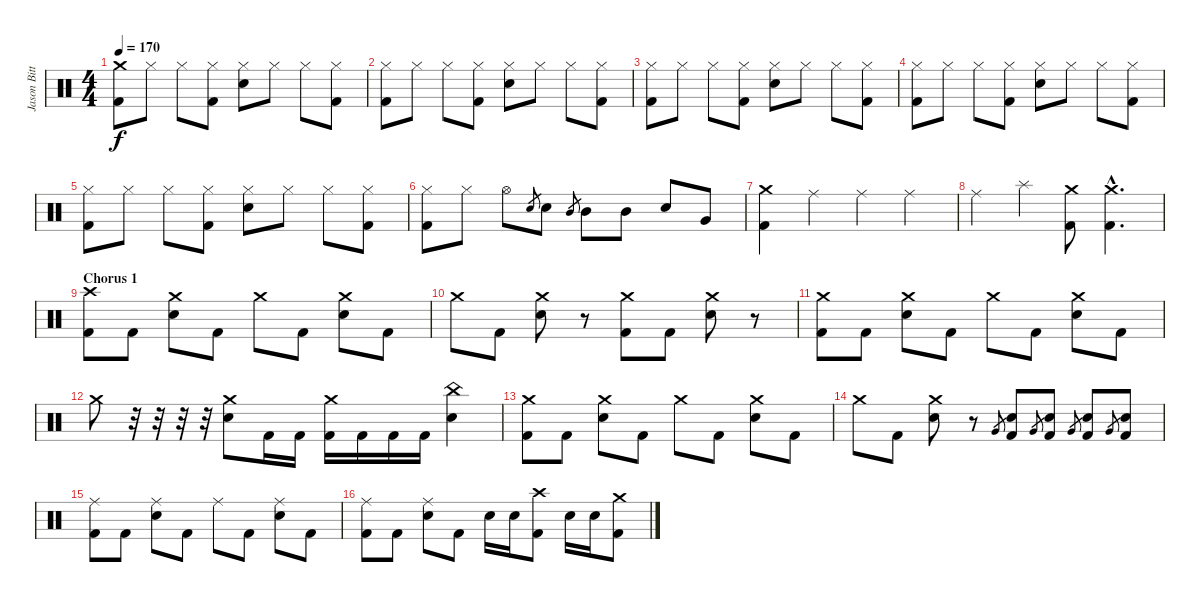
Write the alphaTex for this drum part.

\track ("Jason Bittner" "Jason Bitt") {instrument percussion}
\staff {score}
\articulation defaults
\ts (4 4)
\tempo 170
\clef neutral
\ks c
("Crash medium (hit)" "Kick (hit) 2").8{dy f} "Hi-Hat (closed)".8 "Hi-Hat (closed)".8 ("Hi-Hat (closed)" "Kick (hit) 2").8 ("Hi-Hat (closed)" "Electric Snare (hit)").8 "Hi-Hat (closed)".8 "Hi-Hat (closed)".8 ("Hi-Hat (closed)" "Kick (hit) 2").8 |
("Hi-Hat (closed)" "Kick (hit) 2").8 "Hi-Hat (closed)".8 "Hi-Hat (closed)".8 ("Hi-Hat (closed)" "Kick (hit) 2").8 ("Hi-Hat (closed)" "Electric Snare (hit)").8 "Hi-Hat (closed)".8 "Hi-Hat (closed)".8 ("Hi-Hat (closed)" "Kick (hit) 2").8 |
("Hi-Hat (closed)" "Kick (hit) 2").8 "Hi-Hat (closed)".8 "Hi-Hat (closed)".8 ("Hi-Hat (closed)" "Kick (hit) 2").8 ("Hi-Hat (closed)" "Electric Snare (hit)").8 "Hi-Hat (closed)".8 "Hi-Hat (closed)".8 ("Hi-Hat (closed)" "Kick (hit) 2").8 |
("Hi-Hat (closed)" "Kick (hit) 2").8 "Hi-Hat (closed)".8 "Hi-Hat (closed)".8 ("Hi-Hat (closed)" "Kick (hit) 2").8 ("Hi-Hat (closed)" "Electric Snare (hit)").8 "Hi-Hat (closed)".8 "Hi-Hat (closed)".8 ("Hi-Hat (closed)" "Kick (hit) 2").8 |
("Hi-Hat (closed)" "Kick (hit) 2").8 "Hi-Hat (closed)".8 "Hi-Hat (closed)".8 ("Hi-Hat (closed)" "Kick (hit) 2").8 ("Hi-Hat (closed)" "Electric Snare (hit)").8 "Hi-Hat (closed)".8 "Hi-Hat (closed)".8 ("Hi-Hat (closed)" "Kick (hit) 2").8 |
("Hi-Hat (closed)" "Kick (hit) 2").8 "Hi-Hat (closed)".8 "Hi-Hat (open)".8 "Electric Snare (hit)".8{gr} "Electric Snare (hit)".8 "Mid Tom (hit)".8{gr} "Mid Tom (hit)".8 "Mid Tom (hit)".8 "Electric Snare (hit)".8 "Very Low Tom (hit)".8 |
("Crash medium (hit)" "Kick (hit) 2").4 "Ride (middle)".4 "Ride (middle)".4 "Ride (middle)".4 |
"Ride (middle)".4 "Splash (hit)".4 ("Crash medium (hit)" "Kick (hit) 2").8 ("Crash medium (hit)"{hac} "Kick (hit) 2"{hac}).4{d} |
\section ("" "Chorus 1")
("Crash high (hit)" "Kick (hit) 2").8 "Kick (hit) 2".8 ("Crash medium (hit)" "Electric Snare (hit)").8 "Kick (hit) 2".8 "Crash medium (hit)".8 "Kick (hit) 2".8 ("Crash medium (hit)" "Electric Snare (hit)").8 "Kick (hit) 2".8 |
"Crash medium (hit)".8 "Kick (hit) 2".8 ("Crash medium (hit)" "Electric Snare (hit)").8 r.8 ("Crash medium (hit)" "Kick (hit) 2").8 "Kick (hit) 2".8 ("Crash medium (hit)" "Electric Snare (hit)").8 r.8 |
("Crash medium (hit)" "Kick (hit) 2").8 "Kick (hit) 2".8 ("Crash medium (hit)" "Electric Snare (hit)").8 "Kick (hit) 2".8 "Crash medium (hit)".8 "Kick (hit) 2".8 ("Crash medium (hit)" "Electric Snare (hit)").8 "Kick (hit) 2".8 |
"Crash medium (hit)".8 r.32 r.32 r.32 r.32 ("Crash medium (hit)" "Electric Snare (hit)").8 "Kick (hit) 2".16 "Kick (hit) 2".16 ("Crash medium (hit)" "Kick (hit) 2").16 "Kick (hit) 2".16 "Kick (hit) 2".16 "Kick (hit) 2".16 ("China (hit)" "Electric Snare (hit)").4 |
("Crash medium (hit)" "Kick (hit) 2").8 "Kick (hit) 2".8 ("Crash medium (hit)" "Electric Snare (hit)").8 "Kick (hit) 2".8 "Crash medium (hit)".8 "Kick (hit) 2".8 ("Crash medium (hit)" "Electric Snare (hit)").8 "Kick (hit) 2".8 |
"Crash medium (hit)".8 "Kick (hit) 2".8 ("Crash medium (hit)" "Electric Snare (hit)").8 r.8 "Very Low Tom (hit)".8{gr} ("Kick (hit) 2" "Electric Snare (hit)").8 "Very Low Tom (hit)".8{gr} ("Kick (hit) 2" "Electric Snare (hit)").8 "Very Low Tom (hit)".8{gr} ("Kick (hit) 2" "Electric Snare (hit)").8 "Very Low Tom (hit)".8{gr} ("Kick (hit) 2" "Electric Snare (hit)").8 |
("Ride (middle)" "Kick (hit) 2").8 "Kick (hit) 2".8 ("Ride (middle)" "Electric Snare (hit)").8 "Kick (hit) 2".8 "Ride (middle)".8 "Kick (hit) 2".8 ("Ride (middle)" "Electric Snare (hit)").8 "Kick (hit) 2".8 |
("Ride (middle)" "Kick (hit) 2").8 "Kick (hit) 2".8 ("Ride (middle)" "Electric Snare (hit)").8 "Kick (hit) 2".8 "Electric Snare (hit)".16 "Electric Snare (hit)".16 ("Crash high (hit)" "Kick (hit) 2").8 "Electric Snare (hit)".16 "Electric Snare (hit)".16 ("Crash medium (hit)" "Kick (hit) 2").8
